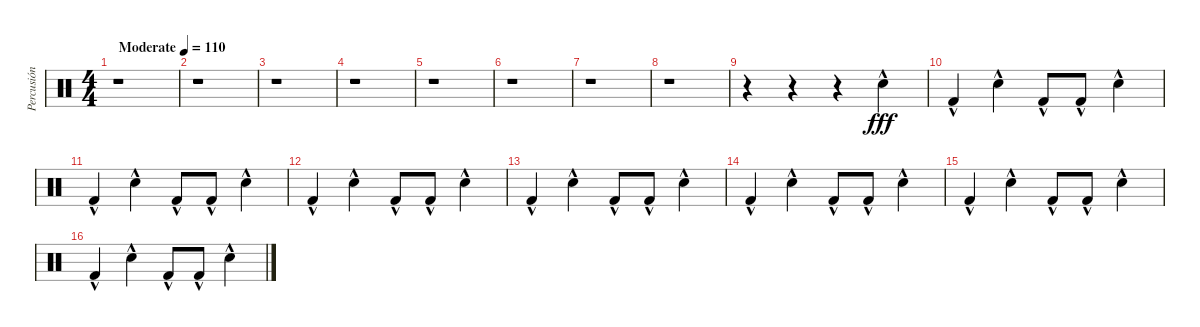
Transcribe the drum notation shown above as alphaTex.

\track ("Percusión" "Percusión") {instrument percussion}
\staff {score}
\articulation defaults
\ts (4 4)
\tempo (110 "Moderate")
\clef neutral
\ks c
r.1{dy fff} |
r.1 |
r.1 |
r.1 |
r.1 |
r.1 |
r.1 |
r.1 |
r.4 r.4 r.4 "Electric Snare (hit)"{hac}.4 |
"Kick (hit) 2"{hac}.4 "Electric Snare (hit)"{hac}.4 "Kick (hit) 2"{hac}.8 "Kick (hit) 2"{hac}.8 "Electric Snare (hit)"{hac}.4 |
"Kick (hit) 2"{hac}.4 "Electric Snare (hit)"{hac}.4 "Kick (hit) 2"{hac}.8 "Kick (hit) 2"{hac}.8 "Electric Snare (hit)"{hac}.4 |
"Kick (hit) 2"{hac}.4 "Electric Snare (hit)"{hac}.4 "Kick (hit) 2"{hac}.8 "Kick (hit) 2"{hac}.8 "Electric Snare (hit)"{hac}.4 |
"Kick (hit) 2"{hac}.4 "Electric Snare (hit)"{hac}.4 "Kick (hit) 2"{hac}.8 "Kick (hit) 2"{hac}.8 "Electric Snare (hit)"{hac}.4 |
"Kick (hit) 2"{hac}.4 "Electric Snare (hit)"{hac}.4 "Kick (hit) 2"{hac}.8 "Kick (hit) 2"{hac}.8 "Electric Snare (hit)"{hac}.4 |
"Kick (hit) 2"{hac}.4 "Electric Snare (hit)"{hac}.4 "Kick (hit) 2"{hac}.8 "Kick (hit) 2"{hac}.8 "Electric Snare (hit)"{hac}.4 |
"Kick (hit) 2"{hac}.4 "Electric Snare (hit)"{hac}.4 "Kick (hit) 2"{hac}.8 "Kick (hit) 2"{hac}.8 "Electric Snare (hit)"{hac}.4
